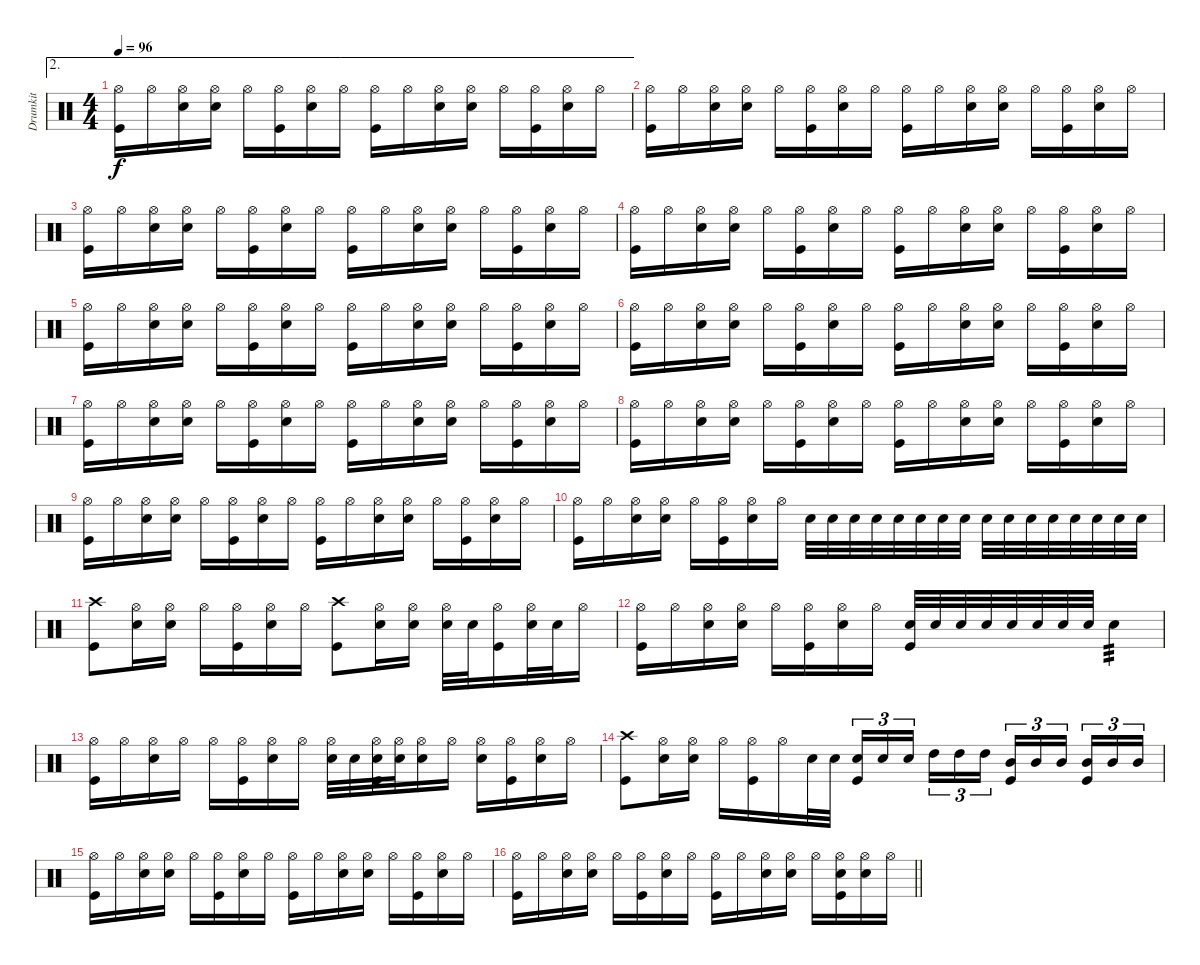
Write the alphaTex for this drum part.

\track ("Drumkit" "Drumkit") {instrument percussion}
\staff {score}
\articulation defaults
\ae 2
\ts (4 4)
\tempo 96
\clef neutral
\ks c
("Hi-Hat (open)" "Kick (hit)").16{dy f} "Hi-Hat (open)".16 ("Hi-Hat (open)" "Snare (hit) 2").16 ("Hi-Hat (open)" "Snare (hit) 2").16 "Hi-Hat (open)".16 ("Hi-Hat (open)" "Kick (hit)").16 ("Hi-Hat (open)" "Snare (hit) 2").16 "Hi-Hat (open)".16 ("Hi-Hat (open)" "Kick (hit)").16 "Hi-Hat (open)".16 ("Hi-Hat (open)" "Snare (hit) 2").16 ("Hi-Hat (open)" "Snare (hit) 2").16 "Hi-Hat (open)".16 ("Hi-Hat (open)" "Kick (hit)").16 ("Hi-Hat (open)" "Snare (hit) 2").16 "Hi-Hat (open)".16 |
("Hi-Hat (open)" "Kick (hit)").16 "Hi-Hat (open)".16 ("Hi-Hat (open)" "Snare (hit) 2").16 ("Hi-Hat (open)" "Snare (hit) 2").16 "Hi-Hat (open)".16 ("Hi-Hat (open)" "Kick (hit)").16 ("Hi-Hat (open)" "Snare (hit) 2").16 "Hi-Hat (open)".16 ("Hi-Hat (open)" "Kick (hit)").16 "Hi-Hat (open)".16 ("Hi-Hat (open)" "Snare (hit) 2").16 ("Hi-Hat (open)" "Snare (hit) 2").16 "Hi-Hat (open)".16 ("Hi-Hat (open)" "Kick (hit)").16 ("Hi-Hat (open)" "Snare (hit) 2").16 "Hi-Hat (open)".16 |
("Hi-Hat (open)" "Kick (hit)").16 "Hi-Hat (open)".16 ("Hi-Hat (open)" "Snare (hit) 2").16 ("Hi-Hat (open)" "Snare (hit) 2").16 "Hi-Hat (open)".16 ("Hi-Hat (open)" "Kick (hit)").16 ("Hi-Hat (open)" "Snare (hit) 2").16 "Hi-Hat (open)".16 ("Hi-Hat (open)" "Kick (hit)").16 "Hi-Hat (open)".16 ("Hi-Hat (open)" "Snare (hit) 2").16 ("Hi-Hat (open)" "Snare (hit) 2").16 "Hi-Hat (open)".16 ("Hi-Hat (open)" "Kick (hit)").16 ("Hi-Hat (open)" "Snare (hit) 2").16 "Hi-Hat (open)".16 |
("Hi-Hat (open)" "Kick (hit)").16 "Hi-Hat (open)".16 ("Hi-Hat (open)" "Snare (hit) 2").16 ("Hi-Hat (open)" "Snare (hit) 2").16 "Hi-Hat (open)".16 ("Hi-Hat (open)" "Kick (hit)").16 ("Hi-Hat (open)" "Snare (hit) 2").16 "Hi-Hat (open)".16 ("Hi-Hat (open)" "Kick (hit)").16 "Hi-Hat (open)".16 ("Hi-Hat (open)" "Snare (hit) 2").16 ("Hi-Hat (open)" "Snare (hit) 2").16 "Hi-Hat (open)".16 ("Hi-Hat (open)" "Kick (hit)").16 ("Hi-Hat (open)" "Snare (hit) 2").16 "Hi-Hat (open)".16 |
("Hi-Hat (open)" "Kick (hit)").16 "Hi-Hat (open)".16 ("Hi-Hat (open)" "Snare (hit) 2").16 ("Hi-Hat (open)" "Snare (hit) 2").16 "Hi-Hat (open)".16 ("Hi-Hat (open)" "Kick (hit)").16 ("Hi-Hat (open)" "Snare (hit) 2").16 "Hi-Hat (open)".16 ("Hi-Hat (open)" "Kick (hit)").16 "Hi-Hat (open)".16 ("Hi-Hat (open)" "Snare (hit) 2").16 ("Hi-Hat (open)" "Snare (hit) 2").16 "Hi-Hat (open)".16 ("Hi-Hat (open)" "Kick (hit)").16 ("Hi-Hat (open)" "Snare (hit) 2").16 "Hi-Hat (open)".16 |
("Hi-Hat (open)" "Kick (hit)").16 "Hi-Hat (open)".16 ("Hi-Hat (open)" "Snare (hit) 2").16 ("Hi-Hat (open)" "Snare (hit) 2").16 "Hi-Hat (open)".16 ("Hi-Hat (open)" "Kick (hit)").16 ("Hi-Hat (open)" "Snare (hit) 2").16 "Hi-Hat (open)".16 ("Hi-Hat (open)" "Kick (hit)").16 "Hi-Hat (open)".16 ("Hi-Hat (open)" "Snare (hit) 2").16 ("Hi-Hat (open)" "Snare (hit) 2").16 "Hi-Hat (open)".16 ("Hi-Hat (open)" "Kick (hit)").16 ("Hi-Hat (open)" "Snare (hit) 2").16 "Hi-Hat (open)".16 |
("Hi-Hat (open)" "Kick (hit)").16 "Hi-Hat (open)".16 ("Hi-Hat (open)" "Snare (hit) 2").16 ("Hi-Hat (open)" "Snare (hit) 2").16 "Hi-Hat (open)".16 ("Hi-Hat (open)" "Kick (hit)").16 ("Hi-Hat (open)" "Snare (hit) 2").16 "Hi-Hat (open)".16 ("Hi-Hat (open)" "Kick (hit)").16 "Hi-Hat (open)".16 ("Hi-Hat (open)" "Snare (hit) 2").16 ("Hi-Hat (open)" "Snare (hit) 2").16 "Hi-Hat (open)".16 ("Hi-Hat (open)" "Kick (hit)").16 ("Hi-Hat (open)" "Snare (hit) 2").16 "Hi-Hat (open)".16 |
("Hi-Hat (open)" "Kick (hit)").16 "Hi-Hat (open)".16 ("Hi-Hat (open)" "Snare (hit) 2").16 ("Hi-Hat (open)" "Snare (hit) 2").16 "Hi-Hat (open)".16 ("Hi-Hat (open)" "Kick (hit)").16 ("Hi-Hat (open)" "Snare (hit) 2").16 "Hi-Hat (open)".16 ("Hi-Hat (open)" "Kick (hit)").16 "Hi-Hat (open)".16 ("Hi-Hat (open)" "Snare (hit) 2").16 ("Hi-Hat (open)" "Snare (hit) 2").16 "Hi-Hat (open)".16 ("Hi-Hat (open)" "Kick (hit)").16 ("Hi-Hat (open)" "Snare (hit) 2").16 "Hi-Hat (open)".16 |
("Hi-Hat (open)" "Kick (hit)").16 "Hi-Hat (open)".16 ("Hi-Hat (open)" "Snare (hit) 2").16 ("Hi-Hat (open)" "Snare (hit) 2").16 "Hi-Hat (open)".16 ("Hi-Hat (open)" "Kick (hit)").16 ("Hi-Hat (open)" "Snare (hit) 2").16 "Hi-Hat (open)".16 ("Hi-Hat (open)" "Kick (hit)").16 "Hi-Hat (open)".16 ("Hi-Hat (open)" "Snare (hit) 2").16 ("Hi-Hat (open)" "Snare (hit) 2").16 "Hi-Hat (open)".16 ("Hi-Hat (open)" "Kick (hit)").16 ("Hi-Hat (open)" "Snare (hit) 2").16 "Hi-Hat (open)".16 |
("Hi-Hat (open)" "Kick (hit)").16 "Hi-Hat (open)".16 ("Hi-Hat (open)" "Snare (hit) 2").16 ("Hi-Hat (open)" "Snare (hit) 2").16 "Hi-Hat (open)".16 ("Hi-Hat (open)" "Kick (hit)").16 ("Hi-Hat (open)" "Snare (hit) 2").16 "Hi-Hat (open)".16 "Snare (hit) 2".32 "Snare (hit) 2".32 "Snare (hit) 2".32 "Snare (hit) 2".32 "Snare (hit) 2".32 "Snare (hit) 2".32 "Snare (hit) 2".32 "Snare (hit) 2".32 "Snare (hit) 2".32 "Snare (hit) 2".32 "Snare (hit) 2".32 "Snare (hit) 2".32 "Snare (hit) 2".32 "Snare (hit) 2".32 "Snare (hit) 2".32 "Snare (hit) 2".32 |
("Crash high (hit)" "Kick (hit)").8 ("Hi-Hat (open)" "Snare (hit) 2").16 ("Hi-Hat (open)" "Snare (hit) 2").16 "Hi-Hat (open)".16 ("Hi-Hat (open)" "Kick (hit)").16 ("Hi-Hat (open)" "Snare (hit) 2").16 "Hi-Hat (open)".16 ("Crash high (hit)" "Kick (hit)").8 ("Hi-Hat (open)" "Snare (hit) 2").16 ("Hi-Hat (open)" "Snare (hit) 2").16 ("Hi-Hat (open)" "Snare (hit) 2").32 "Snare (hit) 2".32 ("Hi-Hat (open)" "Kick (hit)").16 ("Hi-Hat (open)" "Snare (hit) 2").32 "Snare (hit) 2".32 "Hi-Hat (open)".16 |
("Hi-Hat (open)" "Kick (hit)").16 "Hi-Hat (open)".16 ("Hi-Hat (open)" "Snare (hit) 2").16 ("Hi-Hat (open)" "Snare (hit) 2").16 "Hi-Hat (open)".16 ("Hi-Hat (open)" "Kick (hit)").16 ("Hi-Hat (open)" "Snare (hit) 2").16 "Hi-Hat (open)".16 ("Snare (hit) 2" "Kick (hit)").32 "Snare (hit) 2".32 "Snare (hit) 2".32 "Snare (hit) 2".32 "Snare (hit) 2".32 "Snare (hit) 2".32 "Snare (hit) 2".32 "Snare (hit) 2".32 "Snare (hit) 2".4{tp 3} |
("Hi-Hat (open)" "Kick (hit)").16 "Hi-Hat (open)".16 ("Hi-Hat (open)" "Snare (hit) 2").16 "Hi-Hat (open)".16 "Hi-Hat (open)".16 ("Hi-Hat (open)" "Kick (hit)").16 ("Hi-Hat (open)" "Snare (hit) 2").16 "Hi-Hat (open)".16 ("Hi-Hat (open)" "Snare (hit) 2").32 "Snare (hit) 2".32 ("Hi-Hat (open)" "Snare (hit) 2" "Kick (hit)").32 ("Hi-Hat (open)" "Snare (hit) 2").32 ("Hi-Hat (open)" "Snare (hit) 2").16 "Hi-Hat (open)".16 ("Hi-Hat (open)" "Snare (hit) 2").16 ("Hi-Hat (open)" "Kick (hit)").16 ("Hi-Hat (open)" "Snare (hit) 2").16 "Hi-Hat (open)".16 |
("Crash high (hit)" "Kick (hit)").8 ("Hi-Hat (open)" "Snare (hit) 2").16 ("Hi-Hat (open)" "Snare (hit) 2").16 "Hi-Hat (open)".16 ("Hi-Hat (open)" "Kick (hit)").16 "Hi-Hat (open)".16 "Snare (hit) 2".32 "Snare (hit) 2".32 ("Snare (hit) 2" "Kick (hit)").16{tu (3 2)} "Snare (hit) 2".16{tu (3 2)} "Snare (hit) 2".16{tu (3 2)} "High Tom (hit)".16{tu (3 2)} "High Tom (hit)".16{tu (3 2)} "High Tom (hit)".16{tu (3 2)} ("Mid Tom (hit)" "Kick (hit)").16{tu (3 2)} "Mid Tom (hit)".16{tu (3 2)} "Mid Tom (hit)".16{tu (3 2)} ("Mid Tom (hit)" "Kick (hit)").16{tu (3 2)} "Mid Tom (hit)".16{tu (3 2)} "Mid Tom (hit)".16{tu (3 2)} |
("Hi-Hat (open)" "Kick (hit)").16 "Hi-Hat (open)".16 ("Hi-Hat (open)" "Snare (hit) 2").16 ("Hi-Hat (open)" "Snare (hit) 2").16 "Hi-Hat (open)".16 ("Hi-Hat (open)" "Kick (hit)").16 ("Hi-Hat (open)" "Snare (hit) 2").16 "Hi-Hat (open)".16 ("Hi-Hat (open)" "Kick (hit)").16 "Hi-Hat (open)".16 ("Hi-Hat (open)" "Snare (hit) 2").16 ("Hi-Hat (open)" "Snare (hit) 2").16 "Hi-Hat (open)".16 ("Hi-Hat (open)" "Kick (hit)").16 ("Hi-Hat (open)" "Snare (hit) 2").16 "Hi-Hat (open)".16 |
\barLineRight lightlight
("Hi-Hat (open)" "Kick (hit)").16 "Hi-Hat (open)".16 ("Hi-Hat (open)" "Snare (hit) 2").16 ("Hi-Hat (open)" "Snare (hit) 2").16 "Hi-Hat (open)".16 ("Hi-Hat (open)" "Kick (hit)").16 ("Hi-Hat (open)" "Snare (hit) 2").16 "Hi-Hat (open)".16 ("Hi-Hat (open)" "Kick (hit)").16 "Hi-Hat (open)".16 ("Hi-Hat (open)" "Snare (hit) 2").16 ("Hi-Hat (open)" "Snare (hit) 2").16 "Hi-Hat (open)".16 ("Hi-Hat (open)" "Snare (hit) 2" "Kick (hit)").16 ("Hi-Hat (open)" "Snare (hit) 2").16 "Hi-Hat (open)".16
